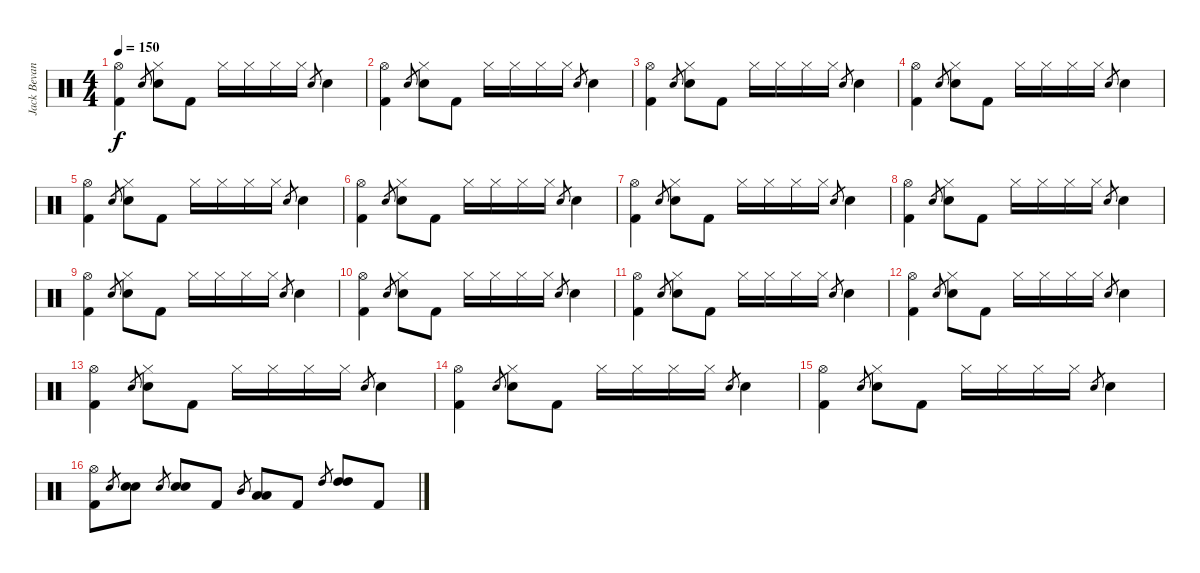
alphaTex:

\track ("Jack Bevan (Percussion)" "Jack Bevan") {instrument percussion bank 255}
\staff {score}
\articulation defaults
\ts (4 4)
\tempo 150
\clef neutral
\ks c
("Hi-Hat (open)" "Kick (hit) 2").4{dy f} "Snare (hit) 2".8{gr} ("Hi-Hat (closed)" "Snare (hit) 2").8 "Kick (hit) 2".8 "Hi-Hat (closed)".16 "Hi-Hat (closed)".16 "Hi-Hat (closed)".16 "Hi-Hat (closed)".16 "Snare (hit) 2".8{gr} "Snare (hit) 2".4 |
("Hi-Hat (open)" "Kick (hit) 2").4 "Snare (hit) 2".8{gr} ("Hi-Hat (closed)" "Snare (hit) 2").8 "Kick (hit) 2".8 "Hi-Hat (closed)".16 "Hi-Hat (closed)".16 "Hi-Hat (closed)".16 "Hi-Hat (closed)".16 "Snare (hit) 2".8{gr} "Snare (hit) 2".4 |
("Hi-Hat (open)" "Kick (hit) 2").4 "Snare (hit) 2".8{gr} ("Hi-Hat (closed)" "Snare (hit) 2").8 "Kick (hit) 2".8 "Hi-Hat (closed)".16 "Hi-Hat (closed)".16 "Hi-Hat (closed)".16 "Hi-Hat (closed)".16 "Snare (hit) 2".8{gr} "Snare (hit) 2".4 |
("Hi-Hat (open)" "Kick (hit) 2").4 "Snare (hit) 2".8{gr} ("Hi-Hat (closed)" "Snare (hit) 2").8 "Kick (hit) 2".8 "Hi-Hat (closed)".16 "Hi-Hat (closed)".16 "Hi-Hat (closed)".16 "Hi-Hat (closed)".16 "Snare (hit) 2".8{gr} "Snare (hit) 2".4 |
("Hi-Hat (open)" "Kick (hit) 2").4 "Snare (hit) 2".8{gr} ("Hi-Hat (closed)" "Snare (hit) 2").8 "Kick (hit) 2".8 "Hi-Hat (closed)".16 "Hi-Hat (closed)".16 "Hi-Hat (closed)".16 "Hi-Hat (closed)".16 "Snare (hit) 2".8{gr} "Snare (hit) 2".4 |
("Hi-Hat (open)" "Kick (hit) 2").4 "Snare (hit) 2".8{gr} ("Hi-Hat (closed)" "Snare (hit) 2").8 "Kick (hit) 2".8 "Hi-Hat (closed)".16 "Hi-Hat (closed)".16 "Hi-Hat (closed)".16 "Hi-Hat (closed)".16 "Snare (hit) 2".8{gr} "Snare (hit) 2".4 |
("Hi-Hat (open)" "Kick (hit) 2").4 "Snare (hit) 2".8{gr} ("Hi-Hat (closed)" "Snare (hit) 2").8 "Kick (hit) 2".8 "Hi-Hat (closed)".16 "Hi-Hat (closed)".16 "Hi-Hat (closed)".16 "Hi-Hat (closed)".16 "Snare (hit) 2".8{gr} "Snare (hit) 2".4 |
("Hi-Hat (open)" "Kick (hit) 2").4 "Snare (hit) 2".8{gr} ("Hi-Hat (closed)" "Snare (hit) 2").8 "Kick (hit) 2".8 "Hi-Hat (closed)".16 "Hi-Hat (closed)".16 "Hi-Hat (closed)".16 "Hi-Hat (closed)".16 "Snare (hit) 2".8{gr} "Snare (hit) 2".4 |
("Hi-Hat (open)" "Kick (hit) 2").4 "Snare (hit) 2".8{gr} ("Hi-Hat (closed)" "Snare (hit) 2").8 "Kick (hit) 2".8 "Hi-Hat (closed)".16 "Hi-Hat (closed)".16 "Hi-Hat (closed)".16 "Hi-Hat (closed)".16 "Snare (hit) 2".8{gr} "Snare (hit) 2".4 |
("Hi-Hat (open)" "Kick (hit) 2").4 "Snare (hit) 2".8{gr} ("Hi-Hat (closed)" "Snare (hit) 2").8 "Kick (hit) 2".8 "Hi-Hat (closed)".16 "Hi-Hat (closed)".16 "Hi-Hat (closed)".16 "Hi-Hat (closed)".16 "Snare (hit) 2".8{gr} "Snare (hit) 2".4 |
("Hi-Hat (open)" "Kick (hit) 2").4 "Snare (hit) 2".8{gr} ("Hi-Hat (closed)" "Snare (hit) 2").8 "Kick (hit) 2".8 "Hi-Hat (closed)".16 "Hi-Hat (closed)".16 "Hi-Hat (closed)".16 "Hi-Hat (closed)".16 "Snare (hit) 2".8{gr} "Snare (hit) 2".4 |
("Hi-Hat (open)" "Kick (hit) 2").4 "Snare (hit) 2".8{gr} ("Hi-Hat (closed)" "Snare (hit) 2").8 "Kick (hit) 2".8 "Hi-Hat (closed)".16 "Hi-Hat (closed)".16 "Hi-Hat (closed)".16 "Hi-Hat (closed)".16 "Snare (hit) 2".8{gr} "Snare (hit) 2".4 |
("Hi-Hat (open)" "Kick (hit) 2").4 "Snare (hit) 2".8{gr} ("Hi-Hat (closed)" "Snare (hit) 2").8 "Kick (hit) 2".8 "Hi-Hat (closed)".16 "Hi-Hat (closed)".16 "Hi-Hat (closed)".16 "Hi-Hat (closed)".16 "Snare (hit) 2".8{gr} "Snare (hit) 2".4 |
("Hi-Hat (open)" "Kick (hit) 2").4 "Snare (hit) 2".8{gr} ("Hi-Hat (closed)" "Snare (hit) 2").8 "Kick (hit) 2".8 "Hi-Hat (closed)".16 "Hi-Hat (closed)".16 "Hi-Hat (closed)".16 "Hi-Hat (closed)".16 "Snare (hit) 2".8{gr} "Snare (hit) 2".4 |
("Hi-Hat (open)" "Kick (hit) 2").4 "Snare (hit) 2".8{gr} ("Hi-Hat (closed)" "Snare (hit) 2").8 "Kick (hit) 2".8 "Hi-Hat (closed)".16 "Hi-Hat (closed)".16 "Hi-Hat (closed)".16 "Hi-Hat (closed)".16 "Snare (hit) 2".8{gr} "Snare (hit) 2".4 |
("Hi-Hat (open)" "Kick (hit) 2").8 "Snare (hit) 2".8{gr} ("Snare (hit) 2" "Snare (hit) 2").8 "Snare (hit) 2".8{gr} ("Snare (hit) 2" "Snare (hit) 2").8 "Kick (hit) 2".8 "Mid Tom (hit)".8{gr} ("Low Tom (hit)" "Low Tom (hit)").8 "Kick (hit) 2".8 "High Tom (hit)".8{gr} ("High Tom (hit)" "High Tom (hit)").8 "Kick (hit) 2".8
